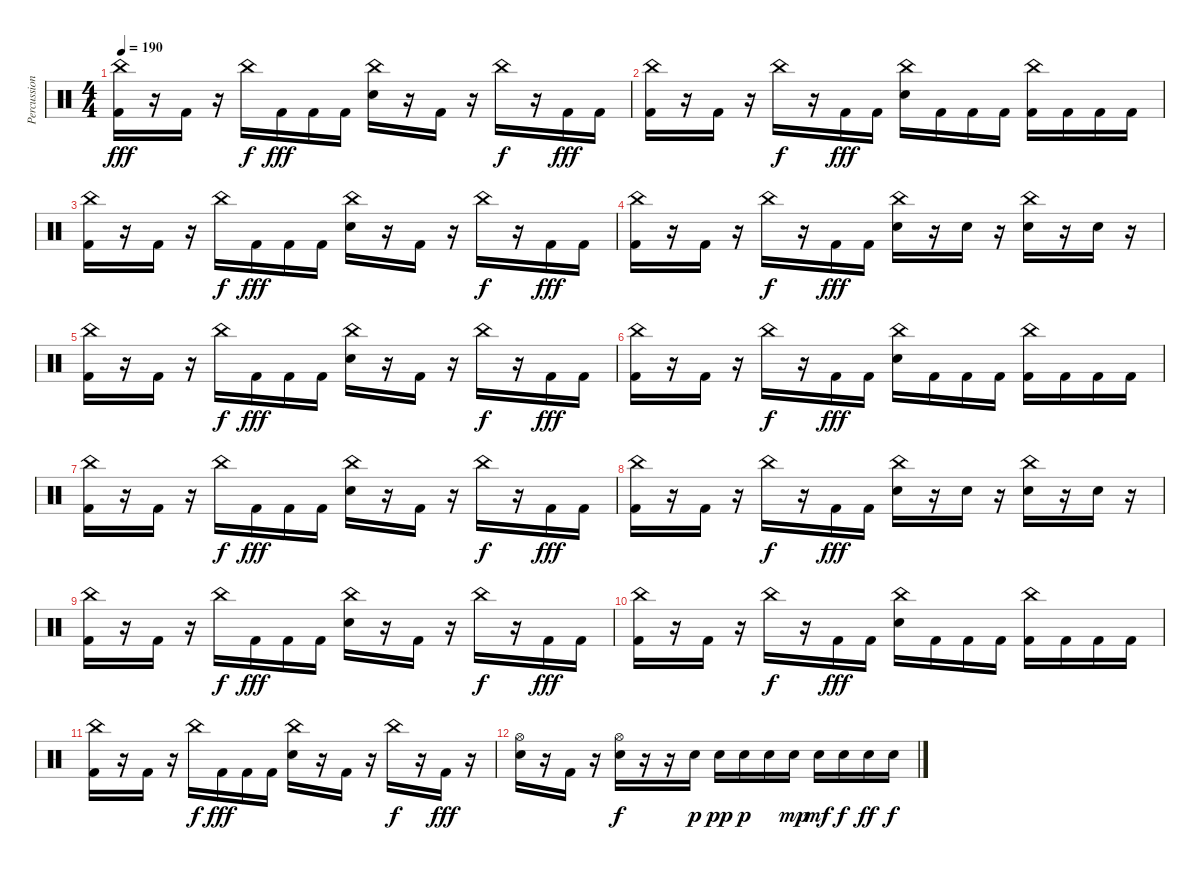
\track ("Percussion" "Percussion") {instrument percussion}
\staff {score}
\articulation defaults
\ts (4 4)
\tempo 190
\clef neutral
\ks c
("China (hit)" "Kick (hit) 2").16{dy fff} r.16 "Kick (hit) 2".16 r.16 "China (hit)".16{dy f} "Kick (hit) 2".16{dy fff} "Kick (hit) 2".16 "Kick (hit) 2".16 ("China (hit)" "Electric Snare (hit)").16 r.16 "Kick (hit) 2".16 r.16 "China (hit)".16{dy f} r.16 "Kick (hit) 2".16{dy fff} "Kick (hit) 2".16 |
("China (hit)" "Kick (hit) 2").16 r.16 "Kick (hit) 2".16 r.16 "China (hit)".16{dy f} r.16 "Kick (hit) 2".16{dy fff} "Kick (hit) 2".16 ("China (hit)" "Electric Snare (hit)").16 "Kick (hit) 2".16 "Kick (hit) 2".16 "Kick (hit) 2".16 ("China (hit)" "Kick (hit) 2").16 "Kick (hit) 2".16 "Kick (hit) 2".16 "Kick (hit) 2".16 |
("China (hit)" "Kick (hit) 2").16 r.16 "Kick (hit) 2".16 r.16 "China (hit)".16{dy f} "Kick (hit) 2".16{dy fff} "Kick (hit) 2".16 "Kick (hit) 2".16 ("China (hit)" "Electric Snare (hit)").16 r.16 "Kick (hit) 2".16 r.16 "China (hit)".16{dy f} r.16 "Kick (hit) 2".16{dy fff} "Kick (hit) 2".16 |
("China (hit)" "Kick (hit) 2").16 r.16 "Kick (hit) 2".16 r.16 "China (hit)".16{dy f} r.16 "Kick (hit) 2".16{dy fff} "Kick (hit) 2".16 ("China (hit)" "Electric Snare (hit)").16 r.16 "Electric Snare (hit)".16 r.16 ("China (hit)" "Electric Snare (hit)").16 r.16 "Electric Snare (hit)".16 r.16 |
("China (hit)" "Kick (hit) 2").16 r.16 "Kick (hit) 2".16 r.16 "China (hit)".16{dy f} "Kick (hit) 2".16{dy fff} "Kick (hit) 2".16 "Kick (hit) 2".16 ("China (hit)" "Electric Snare (hit)").16 r.16 "Kick (hit) 2".16 r.16 "China (hit)".16{dy f} r.16 "Kick (hit) 2".16{dy fff} "Kick (hit) 2".16 |
("China (hit)" "Kick (hit) 2").16 r.16 "Kick (hit) 2".16 r.16 "China (hit)".16{dy f} r.16 "Kick (hit) 2".16{dy fff} "Kick (hit) 2".16 ("China (hit)" "Electric Snare (hit)").16 "Kick (hit) 2".16 "Kick (hit) 2".16 "Kick (hit) 2".16 ("China (hit)" "Kick (hit) 2").16 "Kick (hit) 2".16 "Kick (hit) 2".16 "Kick (hit) 2".16 |
("China (hit)" "Kick (hit) 2").16 r.16 "Kick (hit) 2".16 r.16 "China (hit)".16{dy f} "Kick (hit) 2".16{dy fff} "Kick (hit) 2".16 "Kick (hit) 2".16 ("China (hit)" "Electric Snare (hit)").16 r.16 "Kick (hit) 2".16 r.16 "China (hit)".16{dy f} r.16 "Kick (hit) 2".16{dy fff} "Kick (hit) 2".16 |
("China (hit)" "Kick (hit) 2").16 r.16 "Kick (hit) 2".16 r.16 "China (hit)".16{dy f} r.16 "Kick (hit) 2".16{dy fff} "Kick (hit) 2".16 ("China (hit)" "Electric Snare (hit)").16 r.16 "Electric Snare (hit)".16 r.16 ("China (hit)" "Electric Snare (hit)").16 r.16 "Electric Snare (hit)".16 r.16 |
("China (hit)" "Kick (hit) 2").16 r.16 "Kick (hit) 2".16 r.16 "China (hit)".16{dy f} "Kick (hit) 2".16{dy fff} "Kick (hit) 2".16 "Kick (hit) 2".16 ("China (hit)" "Electric Snare (hit)").16 r.16 "Kick (hit) 2".16 r.16 "China (hit)".16{dy f} r.16 "Kick (hit) 2".16{dy fff} "Kick (hit) 2".16 |
("China (hit)" "Kick (hit) 2").16 r.16 "Kick (hit) 2".16 r.16 "China (hit)".16{dy f} r.16 "Kick (hit) 2".16{dy fff} "Kick (hit) 2".16 ("China (hit)" "Electric Snare (hit)").16 "Kick (hit) 2".16 "Kick (hit) 2".16 "Kick (hit) 2".16 ("China (hit)" "Kick (hit) 2").16 "Kick (hit) 2".16 "Kick (hit) 2".16 "Kick (hit) 2".16 |
("China (hit)" "Kick (hit) 2").16 r.16 "Kick (hit) 2".16 r.16 "China (hit)".16{dy f} "Kick (hit) 2".16{dy fff} "Kick (hit) 2".16 "Kick (hit) 2".16 ("China (hit)" "Electric Snare (hit)").16 r.16 "Kick (hit) 2".16 r.16 "China (hit)".16{dy f} r.16 "Kick (hit) 2".16{dy fff} r.16 |
("Hi-Hat (open)" "Electric Snare (hit)").16 r.16 "Kick (hit) 2".16 r.16 ("Hi-Hat (open)" "Electric Snare (hit)").16{dy f} r.16 r.16 "Electric Snare (hit)".16{dy p} "Electric Snare (hit)".16{dy pp} "Electric Snare (hit)".16{dy p} "Electric Snare (hit)".16 "Electric Snare (hit)".16{dy mp} "Electric Snare (hit)".16{dy mf} "Electric Snare (hit)".16{dy f} "Electric Snare (hit)".16{dy ff} "Electric Snare (hit)".16{dy f}
